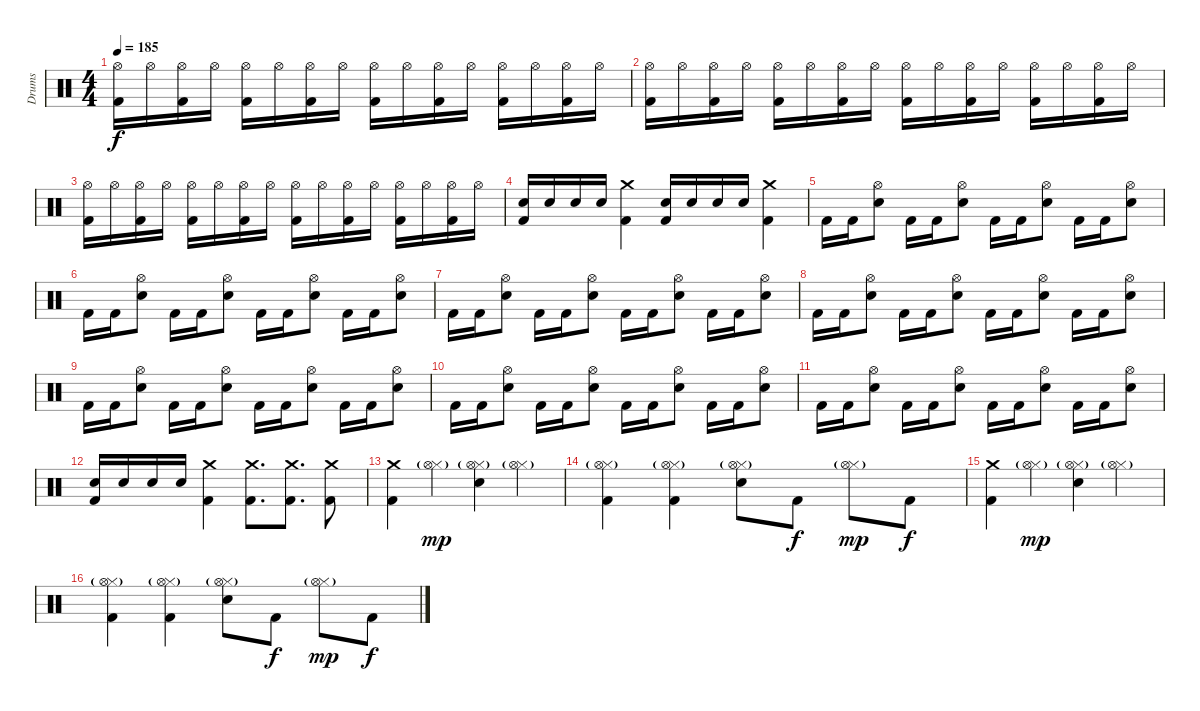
\track ("Drums" "Drums") {instrument percussion}
\staff {score}
\articulation defaults
\ts (4 4)
\tempo 185
\clef neutral
\ks c
("Hi-Hat (open)" "Kick (hit) 2").16{dy f} "Hi-Hat (open)".16 ("Hi-Hat (open)" "Kick (hit) 2").16 "Hi-Hat (open)".16 ("Hi-Hat (open)" "Kick (hit) 2").16 "Hi-Hat (open)".16 ("Hi-Hat (open)" "Kick (hit) 2").16 "Hi-Hat (open)".16 ("Hi-Hat (open)" "Kick (hit) 2").16 "Hi-Hat (open)".16 ("Hi-Hat (open)" "Kick (hit) 2").16 "Hi-Hat (open)".16 ("Hi-Hat (open)" "Kick (hit) 2").16 "Hi-Hat (open)".16 ("Hi-Hat (open)" "Kick (hit) 2").16 "Hi-Hat (open)".16 |
("Hi-Hat (open)" "Kick (hit) 2").16 "Hi-Hat (open)".16 ("Hi-Hat (open)" "Kick (hit) 2").16 "Hi-Hat (open)".16 ("Hi-Hat (open)" "Kick (hit) 2").16 "Hi-Hat (open)".16 ("Hi-Hat (open)" "Kick (hit) 2").16 "Hi-Hat (open)".16 ("Hi-Hat (open)" "Kick (hit) 2").16 "Hi-Hat (open)".16 ("Hi-Hat (open)" "Kick (hit) 2").16 "Hi-Hat (open)".16 ("Hi-Hat (open)" "Kick (hit) 2").16 "Hi-Hat (open)".16 ("Hi-Hat (open)" "Kick (hit) 2").16 "Hi-Hat (open)".16 |
("Hi-Hat (open)" "Kick (hit) 2").16 "Hi-Hat (open)".16 ("Hi-Hat (open)" "Kick (hit) 2").16 "Hi-Hat (open)".16 ("Hi-Hat (open)" "Kick (hit) 2").16 "Hi-Hat (open)".16 ("Hi-Hat (open)" "Kick (hit) 2").16 "Hi-Hat (open)".16 ("Hi-Hat (open)" "Kick (hit) 2").16 "Hi-Hat (open)".16 ("Hi-Hat (open)" "Kick (hit) 2").16 "Hi-Hat (open)".16 ("Hi-Hat (open)" "Kick (hit) 2").16 "Hi-Hat (open)".16 ("Hi-Hat (open)" "Kick (hit) 2").16 "Hi-Hat (open)".16 |
("Electric Snare (hit)" "Kick (hit) 2").16 "Electric Snare (hit)".16 "Electric Snare (hit)".16 "Electric Snare (hit)".16 ("Crash medium (hit)" "Kick (hit) 2").4 ("Electric Snare (hit)" "Kick (hit) 2").16 "Electric Snare (hit)".16 "Electric Snare (hit)".16 "Electric Snare (hit)".16 ("Crash medium (hit)" "Kick (hit) 2").4 |
"Kick (hit) 2".16 "Kick (hit) 2".16 ("Hi-Hat (open)" "Electric Snare (hit)").8 "Kick (hit) 2".16 "Kick (hit) 2".16 ("Hi-Hat (open)" "Electric Snare (hit)").8 "Kick (hit) 2".16 "Kick (hit) 2".16 ("Hi-Hat (open)" "Electric Snare (hit)").8 "Kick (hit) 2".16 "Kick (hit) 2".16 ("Hi-Hat (open)" "Electric Snare (hit)").8 |
"Kick (hit) 2".16 "Kick (hit) 2".16 ("Hi-Hat (open)" "Electric Snare (hit)").8 "Kick (hit) 2".16 "Kick (hit) 2".16 ("Hi-Hat (open)" "Electric Snare (hit)").8 "Kick (hit) 2".16 "Kick (hit) 2".16 ("Hi-Hat (open)" "Electric Snare (hit)").8 "Kick (hit) 2".16 "Kick (hit) 2".16 ("Hi-Hat (open)" "Electric Snare (hit)").8 |
"Kick (hit) 2".16 "Kick (hit) 2".16 ("Hi-Hat (open)" "Electric Snare (hit)").8 "Kick (hit) 2".16 "Kick (hit) 2".16 ("Hi-Hat (open)" "Electric Snare (hit)").8 "Kick (hit) 2".16 "Kick (hit) 2".16 ("Hi-Hat (open)" "Electric Snare (hit)").8 "Kick (hit) 2".16 "Kick (hit) 2".16 ("Hi-Hat (open)" "Electric Snare (hit)").8 |
"Kick (hit) 2".16 "Kick (hit) 2".16 ("Hi-Hat (open)" "Electric Snare (hit)").8 "Kick (hit) 2".16 "Kick (hit) 2".16 ("Hi-Hat (open)" "Electric Snare (hit)").8 "Kick (hit) 2".16 "Kick (hit) 2".16 ("Hi-Hat (open)" "Electric Snare (hit)").8 "Kick (hit) 2".16 "Kick (hit) 2".16 ("Hi-Hat (open)" "Electric Snare (hit)").8 |
"Kick (hit) 2".16 "Kick (hit) 2".16 ("Hi-Hat (open)" "Electric Snare (hit)").8 "Kick (hit) 2".16 "Kick (hit) 2".16 ("Hi-Hat (open)" "Electric Snare (hit)").8 "Kick (hit) 2".16 "Kick (hit) 2".16 ("Hi-Hat (open)" "Electric Snare (hit)").8 "Kick (hit) 2".16 "Kick (hit) 2".16 ("Hi-Hat (open)" "Electric Snare (hit)").8 |
"Kick (hit) 2".16 "Kick (hit) 2".16 ("Hi-Hat (open)" "Electric Snare (hit)").8 "Kick (hit) 2".16 "Kick (hit) 2".16 ("Hi-Hat (open)" "Electric Snare (hit)").8 "Kick (hit) 2".16 "Kick (hit) 2".16 ("Hi-Hat (open)" "Electric Snare (hit)").8 "Kick (hit) 2".16 "Kick (hit) 2".16 ("Hi-Hat (open)" "Electric Snare (hit)").8 |
"Kick (hit) 2".16 "Kick (hit) 2".16 ("Hi-Hat (open)" "Electric Snare (hit)").8 "Kick (hit) 2".16 "Kick (hit) 2".16 ("Hi-Hat (open)" "Electric Snare (hit)").8 "Kick (hit) 2".16 "Kick (hit) 2".16 ("Hi-Hat (open)" "Electric Snare (hit)").8 "Kick (hit) 2".16 "Kick (hit) 2".16 ("Hi-Hat (open)" "Electric Snare (hit)").8 |
("Electric Snare (hit)" "Kick (hit) 2").16 "Electric Snare (hit)".16 "Electric Snare (hit)".16 "Electric Snare (hit)".16 ("Crash medium (hit)" "Kick (hit) 2").4 ("Crash medium (hit)" "Kick (hit) 2").8{d} ("Crash medium (hit)" "Kick (hit) 2").8{d} ("Crash medium (hit)" "Kick (hit) 2").8 |
("Crash medium (hit)" "Kick (hit) 2").4 ("Hi-Hat (closed)" "Hi-Hat (open)"{g}).4{dy mp} ("Hi-Hat (closed)" "Hi-Hat (open)"{g} "Electric Snare (hit)").4 ("Hi-Hat (closed)" "Hi-Hat (open)"{g}).4 |
("Hi-Hat (closed)" "Hi-Hat (open)"{g} "Kick (hit) 2").4 ("Hi-Hat (closed)" "Hi-Hat (open)"{g} "Kick (hit) 2").4 ("Hi-Hat (closed)" "Hi-Hat (open)"{g} "Electric Snare (hit)").8 "Kick (hit) 2".8{dy f} ("Hi-Hat (closed)" "Hi-Hat (open)"{g}).8{dy mp} "Kick (hit) 2".8{dy f} |
("Crash medium (hit)" "Kick (hit) 2").4 ("Hi-Hat (closed)" "Hi-Hat (open)"{g}).4{dy mp} ("Hi-Hat (closed)" "Hi-Hat (open)"{g} "Electric Snare (hit)").4 ("Hi-Hat (closed)" "Hi-Hat (open)"{g}).4 |
("Hi-Hat (closed)" "Hi-Hat (open)"{g} "Kick (hit) 2").4 ("Hi-Hat (closed)" "Hi-Hat (open)"{g} "Kick (hit) 2").4 ("Hi-Hat (closed)" "Hi-Hat (open)"{g} "Electric Snare (hit)").8 "Kick (hit) 2".8{dy f} ("Hi-Hat (closed)" "Hi-Hat (open)"{g}).8{dy mp} "Kick (hit) 2".8{dy f}
